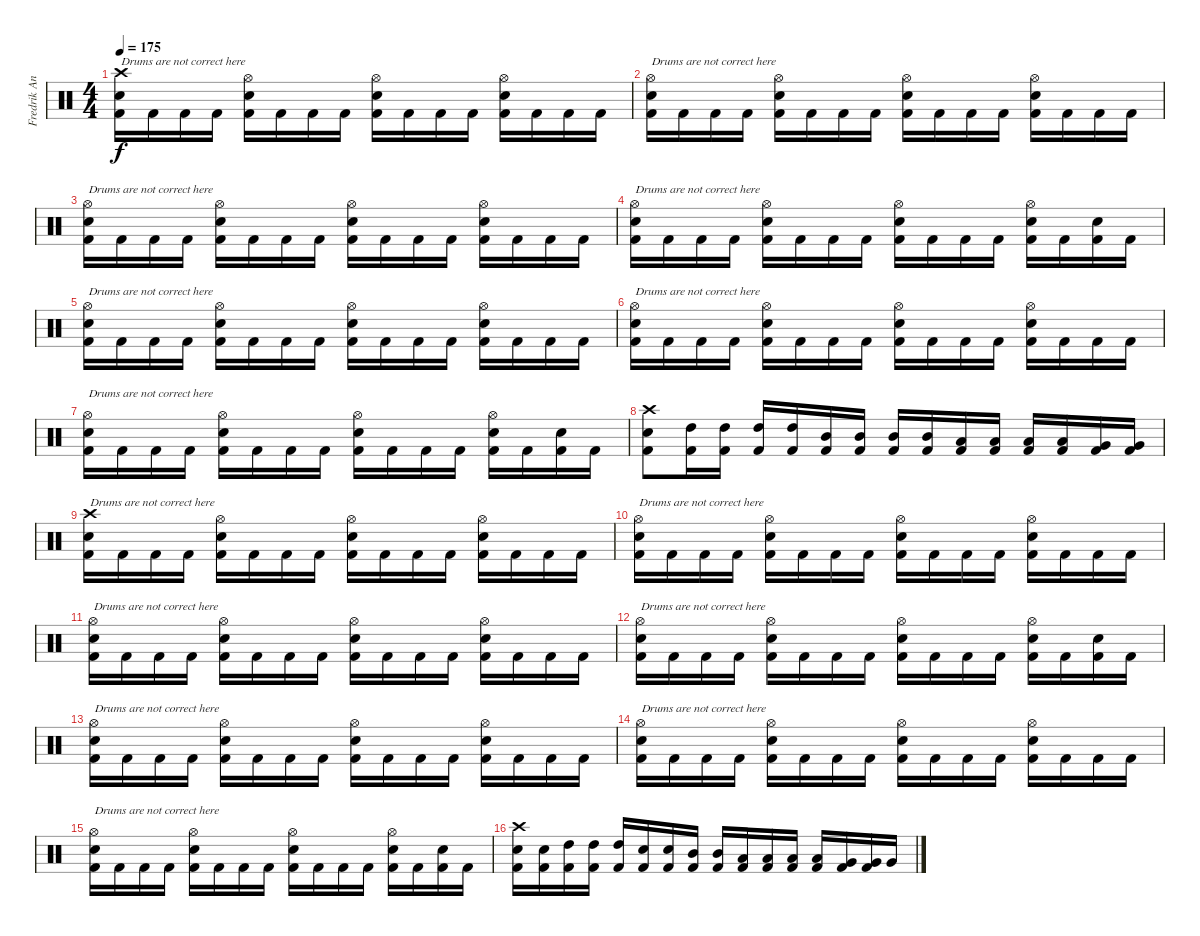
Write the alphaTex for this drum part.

\track ("Fredrik Andersson" "Fredrik An") {instrument percussion}
\staff {score}
\articulation defaults
\ts (4 4)
\tempo 175
\clef neutral
\ks c
("Crash high (hit)" "Electric Snare (hit)" "Kick (hit) 2").16{txt "Drums are not correct here" dy f} "Kick (hit) 2".16 "Kick (hit) 2".16 "Kick (hit) 2".16 ("Hi-Hat (open)" "Electric Snare (hit)" "Kick (hit) 2").16 "Kick (hit) 2".16 "Kick (hit) 2".16 "Kick (hit) 2".16 ("Hi-Hat (open)" "Electric Snare (hit)" "Kick (hit) 2").16 "Kick (hit) 2".16 "Kick (hit) 2".16 "Kick (hit) 2".16 ("Hi-Hat (open)" "Electric Snare (hit)" "Kick (hit) 2").16 "Kick (hit) 2".16 "Kick (hit) 2".16 "Kick (hit) 2".16 |
("Hi-Hat (open)" "Electric Snare (hit)" "Kick (hit) 2").16{txt "Drums are not correct here"} "Kick (hit) 2".16 "Kick (hit) 2".16 "Kick (hit) 2".16 ("Hi-Hat (open)" "Electric Snare (hit)" "Kick (hit) 2").16 "Kick (hit) 2".16 "Kick (hit) 2".16 "Kick (hit) 2".16 ("Hi-Hat (open)" "Electric Snare (hit)" "Kick (hit) 2").16 "Kick (hit) 2".16 "Kick (hit) 2".16 "Kick (hit) 2".16 ("Hi-Hat (open)" "Electric Snare (hit)" "Kick (hit) 2").16 "Kick (hit) 2".16 "Kick (hit) 2".16 "Kick (hit) 2".16 |
("Hi-Hat (open)" "Electric Snare (hit)" "Kick (hit) 2").16{txt "Drums are not correct here"} "Kick (hit) 2".16 "Kick (hit) 2".16 "Kick (hit) 2".16 ("Hi-Hat (open)" "Electric Snare (hit)" "Kick (hit) 2").16 "Kick (hit) 2".16 "Kick (hit) 2".16 "Kick (hit) 2".16 ("Hi-Hat (open)" "Electric Snare (hit)" "Kick (hit) 2").16 "Kick (hit) 2".16 "Kick (hit) 2".16 "Kick (hit) 2".16 ("Hi-Hat (open)" "Electric Snare (hit)" "Kick (hit) 2").16 "Kick (hit) 2".16 "Kick (hit) 2".16 "Kick (hit) 2".16 |
("Hi-Hat (open)" "Electric Snare (hit)" "Kick (hit) 2").16{txt "Drums are not correct here"} "Kick (hit) 2".16 "Kick (hit) 2".16 "Kick (hit) 2".16 ("Hi-Hat (open)" "Electric Snare (hit)" "Kick (hit) 2").16 "Kick (hit) 2".16 "Kick (hit) 2".16 "Kick (hit) 2".16 ("Hi-Hat (open)" "Electric Snare (hit)" "Kick (hit) 2").16 "Kick (hit) 2".16 "Kick (hit) 2".16 "Kick (hit) 2".16 ("Hi-Hat (open)" "Electric Snare (hit)" "Kick (hit) 2").16 "Kick (hit) 2".16 ("Electric Snare (hit)" "Kick (hit) 2").16 "Kick (hit) 2".16 |
("Hi-Hat (open)" "Electric Snare (hit)" "Kick (hit) 2").16{txt "Drums are not correct here"} "Kick (hit) 2".16 "Kick (hit) 2".16 "Kick (hit) 2".16 ("Hi-Hat (open)" "Electric Snare (hit)" "Kick (hit) 2").16 "Kick (hit) 2".16 "Kick (hit) 2".16 "Kick (hit) 2".16 ("Hi-Hat (open)" "Electric Snare (hit)" "Kick (hit) 2").16 "Kick (hit) 2".16 "Kick (hit) 2".16 "Kick (hit) 2".16 ("Hi-Hat (open)" "Electric Snare (hit)" "Kick (hit) 2").16 "Kick (hit) 2".16 "Kick (hit) 2".16 "Kick (hit) 2".16 |
("Hi-Hat (open)" "Electric Snare (hit)" "Kick (hit) 2").16{txt "Drums are not correct here"} "Kick (hit) 2".16 "Kick (hit) 2".16 "Kick (hit) 2".16 ("Hi-Hat (open)" "Electric Snare (hit)" "Kick (hit) 2").16 "Kick (hit) 2".16 "Kick (hit) 2".16 "Kick (hit) 2".16 ("Hi-Hat (open)" "Electric Snare (hit)" "Kick (hit) 2").16 "Kick (hit) 2".16 "Kick (hit) 2".16 "Kick (hit) 2".16 ("Hi-Hat (open)" "Electric Snare (hit)" "Kick (hit) 2").16 "Kick (hit) 2".16 "Kick (hit) 2".16 "Kick (hit) 2".16 |
("Hi-Hat (open)" "Electric Snare (hit)" "Kick (hit) 2").16{txt "Drums are not correct here"} "Kick (hit) 2".16 "Kick (hit) 2".16 "Kick (hit) 2".16 ("Hi-Hat (open)" "Electric Snare (hit)" "Kick (hit) 2").16 "Kick (hit) 2".16 "Kick (hit) 2".16 "Kick (hit) 2".16 ("Hi-Hat (open)" "Electric Snare (hit)" "Kick (hit) 2").16 "Kick (hit) 2".16 "Kick (hit) 2".16 "Kick (hit) 2".16 ("Hi-Hat (open)" "Electric Snare (hit)" "Kick (hit) 2").16 "Kick (hit) 2".16 ("Electric Snare (hit)" "Kick (hit) 2").16 "Kick (hit) 2".16 |
("Crash high (hit)" "Electric Snare (hit)" "Kick (hit) 2").8 ("High Tom (hit)" "Kick (hit) 2").16 ("High Tom (hit)" "Kick (hit) 2").16 ("High Tom (hit)" "Kick (hit) 2").16 ("High Tom (hit)" "Kick (hit) 2").16 ("Mid Tom (hit)" "Kick (hit) 2").16 ("Mid Tom (hit)" "Kick (hit) 2").16 ("Mid Tom (hit)" "Kick (hit) 2").16 ("Mid Tom (hit)" "Kick (hit) 2").16 ("Low Tom (hit)" "Kick (hit) 2").16 ("Low Tom (hit)" "Kick (hit) 2").16 ("Low Tom (hit)" "Kick (hit) 2").16 ("Low Tom (hit)" "Kick (hit) 2").16 ("Very Low Tom (hit)" "Kick (hit) 2").16 ("Very Low Tom (hit)" "Kick (hit) 2").16 |
("Crash high (hit)" "Electric Snare (hit)" "Kick (hit) 2").16{txt "Drums are not correct here"} "Kick (hit) 2".16 "Kick (hit) 2".16 "Kick (hit) 2".16 ("Hi-Hat (open)" "Electric Snare (hit)" "Kick (hit) 2").16 "Kick (hit) 2".16 "Kick (hit) 2".16 "Kick (hit) 2".16 ("Hi-Hat (open)" "Electric Snare (hit)" "Kick (hit) 2").16 "Kick (hit) 2".16 "Kick (hit) 2".16 "Kick (hit) 2".16 ("Hi-Hat (open)" "Electric Snare (hit)" "Kick (hit) 2").16 "Kick (hit) 2".16 "Kick (hit) 2".16 "Kick (hit) 2".16 |
("Hi-Hat (open)" "Electric Snare (hit)" "Kick (hit) 2").16{txt "Drums are not correct here"} "Kick (hit) 2".16 "Kick (hit) 2".16 "Kick (hit) 2".16 ("Hi-Hat (open)" "Electric Snare (hit)" "Kick (hit) 2").16 "Kick (hit) 2".16 "Kick (hit) 2".16 "Kick (hit) 2".16 ("Hi-Hat (open)" "Electric Snare (hit)" "Kick (hit) 2").16 "Kick (hit) 2".16 "Kick (hit) 2".16 "Kick (hit) 2".16 ("Hi-Hat (open)" "Electric Snare (hit)" "Kick (hit) 2").16 "Kick (hit) 2".16 "Kick (hit) 2".16 "Kick (hit) 2".16 |
("Hi-Hat (open)" "Electric Snare (hit)" "Kick (hit) 2").16{txt "Drums are not correct here"} "Kick (hit) 2".16 "Kick (hit) 2".16 "Kick (hit) 2".16 ("Hi-Hat (open)" "Electric Snare (hit)" "Kick (hit) 2").16 "Kick (hit) 2".16 "Kick (hit) 2".16 "Kick (hit) 2".16 ("Hi-Hat (open)" "Electric Snare (hit)" "Kick (hit) 2").16 "Kick (hit) 2".16 "Kick (hit) 2".16 "Kick (hit) 2".16 ("Hi-Hat (open)" "Electric Snare (hit)" "Kick (hit) 2").16 "Kick (hit) 2".16 "Kick (hit) 2".16 "Kick (hit) 2".16 |
("Hi-Hat (open)" "Electric Snare (hit)" "Kick (hit) 2").16{txt "Drums are not correct here"} "Kick (hit) 2".16 "Kick (hit) 2".16 "Kick (hit) 2".16 ("Hi-Hat (open)" "Electric Snare (hit)" "Kick (hit) 2").16 "Kick (hit) 2".16 "Kick (hit) 2".16 "Kick (hit) 2".16 ("Hi-Hat (open)" "Electric Snare (hit)" "Kick (hit) 2").16 "Kick (hit) 2".16 "Kick (hit) 2".16 "Kick (hit) 2".16 ("Hi-Hat (open)" "Electric Snare (hit)" "Kick (hit) 2").16 "Kick (hit) 2".16 ("Electric Snare (hit)" "Kick (hit) 2").16 "Kick (hit) 2".16 |
("Hi-Hat (open)" "Electric Snare (hit)" "Kick (hit) 2").16{txt "Drums are not correct here"} "Kick (hit) 2".16 "Kick (hit) 2".16 "Kick (hit) 2".16 ("Hi-Hat (open)" "Electric Snare (hit)" "Kick (hit) 2").16 "Kick (hit) 2".16 "Kick (hit) 2".16 "Kick (hit) 2".16 ("Hi-Hat (open)" "Electric Snare (hit)" "Kick (hit) 2").16 "Kick (hit) 2".16 "Kick (hit) 2".16 "Kick (hit) 2".16 ("Hi-Hat (open)" "Electric Snare (hit)" "Kick (hit) 2").16 "Kick (hit) 2".16 "Kick (hit) 2".16 "Kick (hit) 2".16 |
("Hi-Hat (open)" "Electric Snare (hit)" "Kick (hit) 2").16{txt "Drums are not correct here"} "Kick (hit) 2".16 "Kick (hit) 2".16 "Kick (hit) 2".16 ("Hi-Hat (open)" "Electric Snare (hit)" "Kick (hit) 2").16 "Kick (hit) 2".16 "Kick (hit) 2".16 "Kick (hit) 2".16 ("Hi-Hat (open)" "Electric Snare (hit)" "Kick (hit) 2").16 "Kick (hit) 2".16 "Kick (hit) 2".16 "Kick (hit) 2".16 ("Hi-Hat (open)" "Electric Snare (hit)" "Kick (hit) 2").16 "Kick (hit) 2".16 "Kick (hit) 2".16 "Kick (hit) 2".16 |
("Hi-Hat (open)" "Electric Snare (hit)" "Kick (hit) 2").16{txt "Drums are not correct here"} "Kick (hit) 2".16 "Kick (hit) 2".16 "Kick (hit) 2".16 ("Hi-Hat (open)" "Electric Snare (hit)" "Kick (hit) 2").16 "Kick (hit) 2".16 "Kick (hit) 2".16 "Kick (hit) 2".16 ("Hi-Hat (open)" "Electric Snare (hit)" "Kick (hit) 2").16 "Kick (hit) 2".16 "Kick (hit) 2".16 "Kick (hit) 2".16 ("Hi-Hat (open)" "Electric Snare (hit)" "Kick (hit) 2").16 "Kick (hit) 2".16 ("Electric Snare (hit)" "Kick (hit) 2").16 "Kick (hit) 2".16 |
("Crash high (hit)" "Electric Snare (hit)" "Kick (hit) 2").16 ("Electric Snare (hit)" "Kick (hit) 2").16 ("High Tom (hit)" "Kick (hit) 2").16 ("High Tom (hit)" "Kick (hit) 2").16 ("High Tom (hit)" "Kick (hit) 2").16 ("Electric Snare (hit)" "Kick (hit) 2").16 ("Electric Snare (hit)" "Kick (hit) 2").16 ("Mid Tom (hit)" "Kick (hit) 2").16 ("Mid Tom (hit)" "Kick (hit) 2").16 ("Low Tom (hit)" "Kick (hit) 2").16 ("Low Tom (hit)" "Kick (hit) 2").16 ("Low Tom (hit)" "Kick (hit) 2").16 ("Low Tom (hit)" "Kick (hit) 2").16 ("Very Low Tom (hit)" "Kick (hit) 2").16 ("Very Low Tom (hit)" "Kick (hit) 2").16 "Very Low Tom (hit)".16
